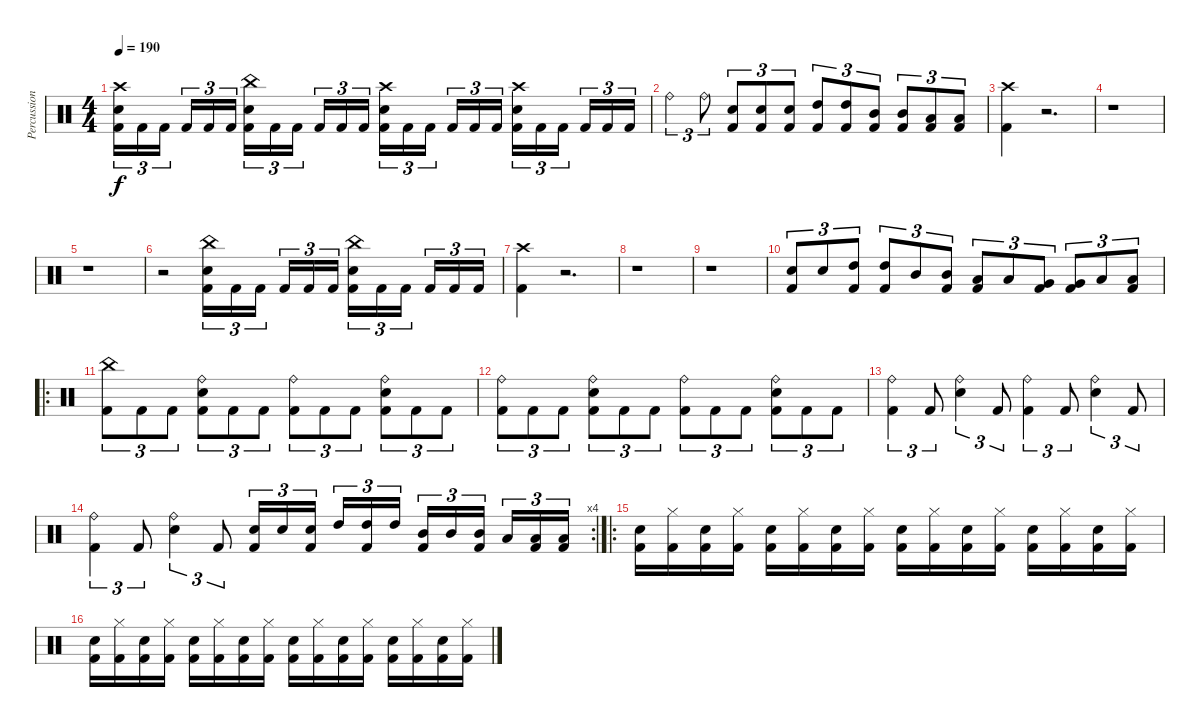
\track ("Percussion" "Percussion") {instrument percussion}
\staff {score}
\articulation defaults
\ts (4 4)
\tempo 190
\clef neutral
\ks c
("Crash high (hit)" "Snare (hit) 2" "Kick (hit) 2").16{tu (3 2) dy f} "Kick (hit) 2".16{tu (3 2)} "Kick (hit) 2".16{tu (3 2)} "Kick (hit) 2".16{tu (3 2)} "Kick (hit) 2".16{tu (3 2)} "Kick (hit) 2".16{tu (3 2)} ("China (hit)" "Snare (hit) 2" "Kick (hit) 2").16{tu (3 2)} "Kick (hit) 2".16{tu (3 2)} "Kick (hit) 2".16{tu (3 2)} "Kick (hit) 2".16{tu (3 2)} "Kick (hit) 2".16{tu (3 2)} "Kick (hit) 2".16{tu (3 2)} ("Crash high (hit)" "Snare (hit) 2" "Kick (hit) 2").16{tu (3 2)} "Kick (hit) 2".16{tu (3 2)} "Kick (hit) 2".16{tu (3 2)} "Kick (hit) 2".16{tu (3 2)} "Kick (hit) 2".16{tu (3 2)} "Kick (hit) 2".16{tu (3 2)} ("Crash high (hit)" "Snare (hit) 2" "Kick (hit) 2").16{tu (3 2)} "Kick (hit) 2".16{tu (3 2)} "Kick (hit) 2".16{tu (3 2)} "Kick (hit) 2".16{tu (3 2)} "Kick (hit) 2".16{tu (3 2)} "Kick (hit) 2".16{tu (3 2)} |
"Ride (bell)".4{tu (3 2)} "Ride (bell)".8{tu (3 2)} ("Snare (hit) 2" "Kick (hit) 2").8{tu (3 2)} ("Snare (hit) 2" "Kick (hit) 2").8{tu (3 2)} ("Snare (hit) 2" "Kick (hit) 2").8{tu (3 2)} ("High Tom (hit)" "Kick (hit) 2").8{tu (3 2)} ("High Tom (hit)" "Kick (hit) 2").8{tu (3 2)} ("Mid Tom (hit)" "Kick (hit) 2").8{tu (3 2)} ("Mid Tom (hit)" "Kick (hit) 2").8{tu (3 2)} ("Low Tom (hit)" "Kick (hit) 2").8{tu (3 2)} ("Low Tom (hit)" "Kick (hit) 2").8{tu (3 2)} |
("Kick (hit) 2" "Crash high (hit)").4 r.2{d} |
r.1 |
r.1 |
r.2 ("China (hit)" "Snare (hit) 2" "Kick (hit) 2").16{tu (3 2)} "Kick (hit) 2".16{tu (3 2)} "Kick (hit) 2".16{tu (3 2)} "Kick (hit) 2".16{tu (3 2)} "Kick (hit) 2".16{tu (3 2)} "Kick (hit) 2".16{tu (3 2)} ("China (hit)" "Snare (hit) 2" "Kick (hit) 2").16{tu (3 2)} "Kick (hit) 2".16{tu (3 2)} "Kick (hit) 2".16{tu (3 2)} "Kick (hit) 2".16{tu (3 2)} "Kick (hit) 2".16{tu (3 2)} "Kick (hit) 2".16{tu (3 2)} |
("Kick (hit) 2" "Crash high (hit)").4 r.2{d} |
r.1 |
r.1 |
("Snare (hit) 2" "Kick (hit) 2").8{tu (3 2)} "Snare (hit) 2".8{tu (3 2)} ("High Tom (hit)" "Kick (hit) 2").8{tu (3 2)} ("High Tom (hit)" "Kick (hit) 2").8{tu (3 2)} "Mid Tom (hit)".8{tu (3 2)} ("Mid Tom (hit)" "Kick (hit) 2").8{tu (3 2)} ("Low Tom (hit)" "Kick (hit) 2").8{tu (3 2)} "Low Tom (hit)".8{tu (3 2)} ("Very Low Tom (hit)" "Kick (hit) 2").8{tu (3 2)} ("Very Low Tom (hit)" "Kick (hit) 2").8{tu (3 2)} "Low Floor Tom (hit)".8{tu (3 2)} ("Low Floor Tom (hit)" "Kick (hit) 2").8{tu (3 2)} |
\ro
("China (hit)" "Kick (hit) 2").8{tu (3 2)} "Kick (hit) 2".8{tu (3 2)} "Kick (hit) 2".8{tu (3 2)} ("Ride (bell)" "Snare (hit) 2" "Kick (hit) 2").8{tu (3 2)} "Kick (hit) 2".8{tu (3 2)} "Kick (hit) 2".8{tu (3 2)} ("Ride (bell)" "Kick (hit) 2").8{tu (3 2)} "Kick (hit) 2".8{tu (3 2)} "Kick (hit) 2".8{tu (3 2)} ("Ride (bell)" "Snare (hit) 2" "Kick (hit) 2").8{tu (3 2)} "Kick (hit) 2".8{tu (3 2)} "Kick (hit) 2".8{tu (3 2)} |
("Ride (bell)" "Kick (hit) 2").8{tu (3 2)} "Kick (hit) 2".8{tu (3 2)} "Kick (hit) 2".8{tu (3 2)} ("Ride (bell)" "Snare (hit) 2" "Kick (hit) 2").8{tu (3 2)} "Kick (hit) 2".8{tu (3 2)} "Kick (hit) 2".8{tu (3 2)} ("Ride (bell)" "Kick (hit) 2").8{tu (3 2)} "Kick (hit) 2".8{tu (3 2)} "Kick (hit) 2".8{tu (3 2)} ("Ride (bell)" "Snare (hit) 2" "Kick (hit) 2").8{tu (3 2)} "Kick (hit) 2".8{tu (3 2)} "Kick (hit) 2".8{tu (3 2)} |
("Ride (bell)" "Kick (hit) 2").4{tu (3 2)} "Kick (hit) 2".8{tu (3 2)} ("Ride (bell)" "Snare (hit) 2").4{tu (3 2)} "Kick (hit) 2".8{tu (3 2)} ("Ride (bell)" "Kick (hit) 2").4{tu (3 2)} "Kick (hit) 2".8{tu (3 2)} ("Ride (bell)" "Snare (hit) 2").4{tu (3 2)} "Kick (hit) 2".8{tu (3 2)} |
\rc 4
("Ride (bell)" "Kick (hit) 2").4{tu (3 2)} "Kick (hit) 2".8{tu (3 2)} ("Ride (bell)" "Snare (hit) 2").4{tu (3 2)} "Kick (hit) 2".8{tu (3 2)} ("Snare (hit) 2" "Kick (hit) 2").16{tu (3 2)} "Snare (hit) 2".16{tu (3 2)} ("Snare (hit) 2" "Kick (hit) 2").16{tu (3 2)} "High Tom (hit)".16{tu (3 2)} ("High Tom (hit)" "Kick (hit) 2").16{tu (3 2)} "High Tom (hit)".16{tu (3 2)} ("Mid Tom (hit)" "Kick (hit) 2").16{tu (3 2)} "Mid Tom (hit)".16{tu (3 2)} ("Mid Tom (hit)" "Kick (hit) 2").16{tu (3 2)} "Low Tom (hit)".16{tu (3 2)} ("Low Tom (hit)" "Kick (hit) 2").16{tu (3 2)} ("Low Tom (hit)" "Kick (hit) 2").16{tu (3 2)} |
\ro
("Snare (hit) 2" "Kick (hit) 2").16 ("Hi-Hat (closed)" "Kick (hit) 2").16 ("Snare (hit) 2" "Kick (hit) 2").16 ("Hi-Hat (closed)" "Kick (hit) 2").16 ("Snare (hit) 2" "Kick (hit) 2").16 ("Hi-Hat (closed)" "Kick (hit) 2").16 ("Snare (hit) 2" "Kick (hit) 2").16 ("Hi-Hat (closed)" "Kick (hit) 2").16 ("Snare (hit) 2" "Kick (hit) 2").16 ("Hi-Hat (closed)" "Kick (hit) 2").16 ("Snare (hit) 2" "Kick (hit) 2").16 ("Hi-Hat (closed)" "Kick (hit) 2").16 ("Snare (hit) 2" "Kick (hit) 2").16 ("Hi-Hat (closed)" "Kick (hit) 2").16 ("Snare (hit) 2" "Kick (hit) 2").16 ("Hi-Hat (closed)" "Kick (hit) 2").16 |
("Snare (hit) 2" "Kick (hit) 2").16 ("Hi-Hat (closed)" "Kick (hit) 2").16 ("Snare (hit) 2" "Kick (hit) 2").16 ("Hi-Hat (closed)" "Kick (hit) 2").16 ("Snare (hit) 2" "Kick (hit) 2").16 ("Hi-Hat (closed)" "Kick (hit) 2").16 ("Snare (hit) 2" "Kick (hit) 2").16 ("Hi-Hat (closed)" "Kick (hit) 2").16 ("Snare (hit) 2" "Kick (hit) 2").16 ("Hi-Hat (closed)" "Kick (hit) 2").16 ("Snare (hit) 2" "Kick (hit) 2").16 ("Hi-Hat (closed)" "Kick (hit) 2").16 ("Snare (hit) 2" "Kick (hit) 2").16 ("Hi-Hat (closed)" "Kick (hit) 2").16 ("Snare (hit) 2" "Kick (hit) 2").16 ("Hi-Hat (closed)" "Kick (hit) 2").16
